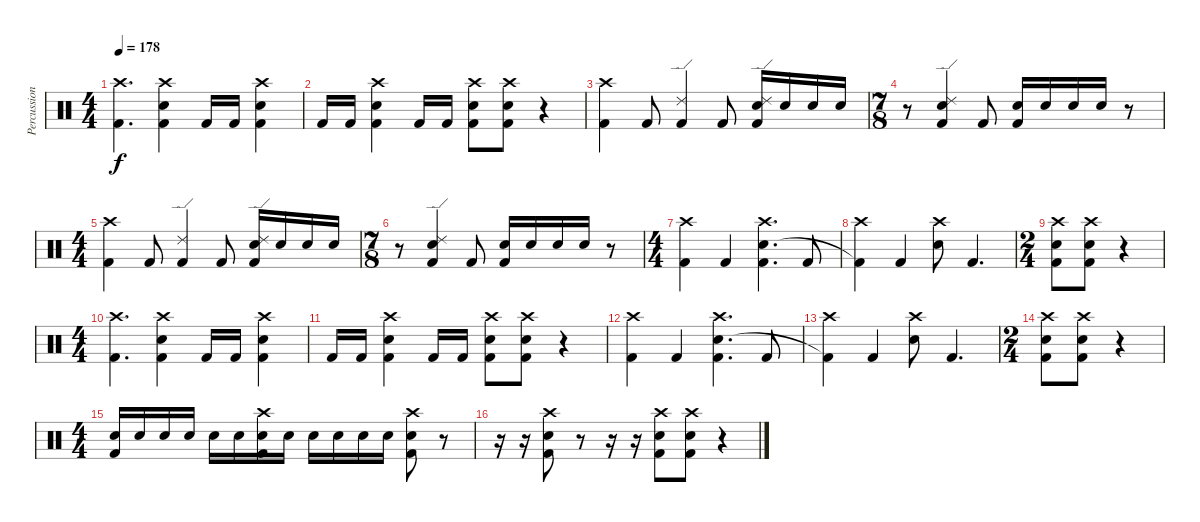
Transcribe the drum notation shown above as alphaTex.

\track ("Percussion" "Percussion") {instrument percussion}
\staff {score}
\articulation defaults
\ts (4 4)
\tempo 178
\clef neutral
\ks c
("Crash high (hit)" "Kick (hit) 2").4{d dy f} ("Crash high (hit)" "Electric Snare (hit)" "Kick (hit) 2").4 "Kick (hit) 2".16 "Kick (hit) 2".16 ("Crash high (hit)" "Electric Snare (hit)" "Kick (hit) 2").4 |
"Kick (hit) 2".16 "Kick (hit) 2".16 ("Crash high (hit)" "Electric Snare (hit)" "Kick (hit) 2").4 "Kick (hit) 2".16 "Kick (hit) 2".16 ("Crash high (hit)" "Electric Snare (hit)" "Kick (hit) 2").8 ("Crash high (hit)" "Electric Snare (hit)" "Kick (hit) 2").8 r.4 |
("Crash high (hit)" "Kick (hit) 2").4 "Kick (hit) 2".8 ("Ride (edge) 2" "Kick (hit) 2").4 "Kick (hit) 2".8 ("Ride (edge) 2" "Electric Snare (hit)" "Kick (hit) 2").16 "Electric Snare (hit)".16 "Electric Snare (hit)".16 "Electric Snare (hit)".16 |
\ts (7 8)
r.8 ("Ride (edge) 2" "Electric Snare (hit)" "Kick (hit) 2").4 "Kick (hit) 2".8 ("Electric Snare (hit)" "Kick (hit) 2").16 "Electric Snare (hit)".16 "Electric Snare (hit)".16 "Electric Snare (hit)".16 r.8 |
\ts (4 4)
("Crash high (hit)" "Kick (hit) 2").4 "Kick (hit) 2".8 ("Ride (edge) 2" "Kick (hit) 2").4 "Kick (hit) 2".8 ("Ride (edge) 2" "Electric Snare (hit)" "Kick (hit) 2").16 "Electric Snare (hit)".16 "Electric Snare (hit)".16 "Electric Snare (hit)".16 |
\ts (7 8)
r.8 ("Ride (edge) 2" "Electric Snare (hit)" "Kick (hit) 2").4 "Kick (hit) 2".8 ("Electric Snare (hit)" "Kick (hit) 2").16 "Electric Snare (hit)".16 "Electric Snare (hit)".16 "Electric Snare (hit)".16 r.8 |
\ts (4 4)
("Crash high (hit)" "Kick (hit) 2").4 "Kick (hit) 2".4 ("Crash high (hit)" "Electric Snare (hit)" "Kick (hit) 2").4{d} "Kick (hit) 2".8 |
("Crash high (hit)" "Kick (hit) 2"{t}).4 "Kick (hit) 2".4 ("Crash high (hit)" "Electric Snare (hit)").8 "Kick (hit) 2".4{d} |
\ts (2 4)
("Crash high (hit)" "Electric Snare (hit)" "Kick (hit) 2").8 ("Crash high (hit)" "Electric Snare (hit)" "Kick (hit) 2").8 r.4 |
\ts (4 4)
("Crash high (hit)" "Kick (hit) 2").4{d} ("Crash high (hit)" "Electric Snare (hit)" "Kick (hit) 2").4 "Kick (hit) 2".16 "Kick (hit) 2".16 ("Crash high (hit)" "Electric Snare (hit)" "Kick (hit) 2").4 |
"Kick (hit) 2".16 "Kick (hit) 2".16 ("Crash high (hit)" "Electric Snare (hit)" "Kick (hit) 2").4 "Kick (hit) 2".16 "Kick (hit) 2".16 ("Crash high (hit)" "Electric Snare (hit)" "Kick (hit) 2").8 ("Crash high (hit)" "Electric Snare (hit)" "Kick (hit) 2").8 r.4 |
("Crash high (hit)" "Kick (hit) 2").4 "Kick (hit) 2".4 ("Crash high (hit)" "Electric Snare (hit)" "Kick (hit) 2").4{d} "Kick (hit) 2".8 |
("Crash high (hit)" "Kick (hit) 2"{t}).4 "Kick (hit) 2".4 ("Crash high (hit)" "Electric Snare (hit)").8 "Kick (hit) 2".4{d} |
\ts (2 4)
("Crash high (hit)" "Electric Snare (hit)" "Kick (hit) 2").8 ("Crash high (hit)" "Electric Snare (hit)" "Kick (hit) 2").8 r.4 |
\ts (4 4)
("Electric Snare (hit)" "Kick (hit) 2").16 "Electric Snare (hit)".16 "Electric Snare (hit)".16 "Electric Snare (hit)".16 "Electric Snare (hit)".16 "Electric Snare (hit)".16 ("Crash high (hit)" "Electric Snare (hit)" "Kick (hit) 2").16 "Electric Snare (hit)".16 "Electric Snare (hit)".16 "Electric Snare (hit)".16 "Electric Snare (hit)".16 "Electric Snare (hit)".16 ("Crash high (hit)" "Electric Snare (hit)" "Kick (hit) 2").8 r.8 |
r.16 r.16 ("Crash high (hit)" "Electric Snare (hit)" "Kick (hit) 2").8 r.8 r.16 r.16 ("Crash high (hit)" "Electric Snare (hit)" "Kick (hit) 2").8 ("Crash high (hit)" "Electric Snare (hit)" "Kick (hit) 2").8 r.4
